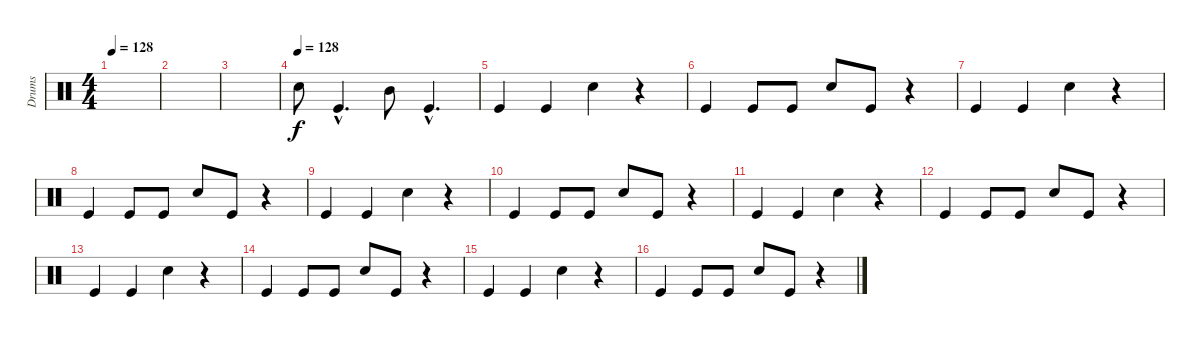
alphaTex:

\track ("Drums" "Drums") {instrument percussion}
\staff {score}
\articulation defaults
\ts (4 4)
\tempo 128
\clef neutral
\ks c
|
|
|
\tempo (128)
"Snare (hit) 2".8 "Kick (hit)"{hac}.4{d} "Mid Tom (hit)".8 "Kick (hit)"{hac}.4{d} |
"Kick (hit)".4 "Kick (hit)".4 "Snare (hit) 2".4 r.4 |
"Kick (hit)".4 "Kick (hit)".8 "Kick (hit)".8 "Snare (hit) 2".8 "Kick (hit)".8 r.4 |
"Kick (hit)".4 "Kick (hit)".4 "Snare (hit) 2".4 r.4 |
"Kick (hit)".4 "Kick (hit)".8 "Kick (hit)".8 "Snare (hit) 2".8 "Kick (hit)".8 r.4 |
"Kick (hit)".4 "Kick (hit)".4 "Snare (hit) 2".4 r.4 |
"Kick (hit)".4 "Kick (hit)".8 "Kick (hit)".8 "Snare (hit) 2".8 "Kick (hit)".8 r.4 |
"Kick (hit)".4 "Kick (hit)".4 "Snare (hit) 2".4 r.4 |
"Kick (hit)".4 "Kick (hit)".8 "Kick (hit)".8 "Snare (hit) 2".8 "Kick (hit)".8 r.4 |
"Kick (hit)".4 "Kick (hit)".4 "Snare (hit) 2".4 r.4 |
"Kick (hit)".4 "Kick (hit)".8 "Kick (hit)".8 "Snare (hit) 2".8 "Kick (hit)".8 r.4 |
"Kick (hit)".4 "Kick (hit)".4 "Snare (hit) 2".4 r.4 |
"Kick (hit)".4 "Kick (hit)".8 "Kick (hit)".8 "Snare (hit) 2".8 "Kick (hit)".8 r.4
